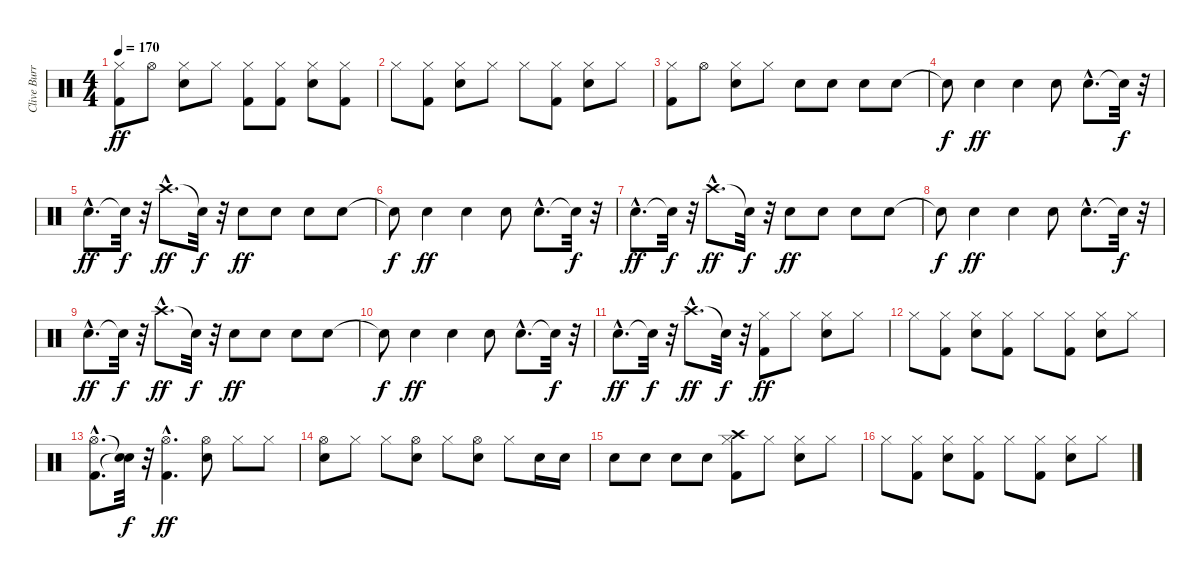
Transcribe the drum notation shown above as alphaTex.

\track ("Clive Burr" "Clive Burr") {instrument percussion}
\staff {score}
\articulation defaults
\ts (4 4)
\tempo 170
\clef neutral
\ks c
("Kick (hit) 2" "Hi-Hat (closed)").8{dy ff} "Hi-Hat (open)".8 ("Snare (hit) 2" "Hi-Hat (closed)").8 "Hi-Hat (closed)".8 ("Kick (hit) 2" "Hi-Hat (closed)").8 ("Kick (hit) 2" "Hi-Hat (closed)").8 ("Snare (hit) 2" "Hi-Hat (closed)").8 ("Kick (hit) 2" "Hi-Hat (closed)").8 |
"Hi-Hat (closed)".8 ("Kick (hit) 2" "Hi-Hat (closed)").8 ("Snare (hit) 2" "Hi-Hat (closed)").8 "Hi-Hat (closed)".8 "Hi-Hat (closed)".8 ("Kick (hit) 2" "Hi-Hat (closed)").8 ("Snare (hit) 2" "Hi-Hat (closed)").8 "Hi-Hat (closed)".8 |
("Kick (hit) 2" "Hi-Hat (closed)").8 "Hi-Hat (open)".8 ("Snare (hit) 2" "Hi-Hat (closed)").8 "Hi-Hat (closed)".8 "Snare (hit) 2".8 "Snare (hit) 2".8 "Snare (hit) 2".8 "Snare (hit) 2".8 |
"Snare (hit)"{t}.8{dy f} "Snare (hit) 2".4{dy ff} "Snare (hit) 2".4 "Snare (hit) 2".8 "Snare (hit) 2"{hac}.8{d} "Snare (hit)"{t}.32{dy f} r.32 |
"Snare (hit) 2"{hac}.8{d dy ff} "Snare (hit)"{t}.32{dy f} r.32 "Crash high (hit)"{hac}.8{d dy ff} "Snare (hit)"{t}.32{dy f} r.32 "Snare (hit) 2".8{dy ff} "Snare (hit) 2".8 "Snare (hit) 2".8 "Snare (hit) 2".8 |
"Snare (hit)"{t}.8{dy f} "Snare (hit) 2".4{dy ff} "Snare (hit) 2".4 "Snare (hit) 2".8 "Snare (hit) 2"{hac}.8{d} "Snare (hit)"{t}.32{dy f} r.32 |
"Snare (hit) 2"{hac}.8{d dy ff} "Snare (hit)"{t}.32{dy f} r.32 "Crash high (hit)"{hac}.8{d dy ff} "Snare (hit)"{t}.32{dy f} r.32 "Snare (hit) 2".8{dy ff} "Snare (hit) 2".8 "Snare (hit) 2".8 "Snare (hit) 2".8 |
"Snare (hit)"{t}.8{dy f} "Snare (hit) 2".4{dy ff} "Snare (hit) 2".4 "Snare (hit) 2".8 "Snare (hit) 2"{hac}.8{d} "Snare (hit)"{t}.32{dy f} r.32 |
"Snare (hit) 2"{hac}.8{d dy ff} "Snare (hit)"{t}.32{dy f} r.32 "Crash high (hit)"{hac}.8{d dy ff} "Snare (hit)"{t}.32{dy f} r.32 "Snare (hit) 2".8{dy ff} "Snare (hit) 2".8 "Snare (hit) 2".8 "Snare (hit) 2".8 |
"Snare (hit)"{t}.8{dy f} "Snare (hit) 2".4{dy ff} "Snare (hit) 2".4 "Snare (hit) 2".8 "Snare (hit) 2"{hac}.8{d} "Snare (hit)"{t}.32{dy f} r.32 |
"Snare (hit) 2"{hac}.8{d dy ff} "Snare (hit)"{t}.32{dy f} r.32 "Crash high (hit)"{hac}.8{d dy ff} "Snare (hit)"{t}.32{dy f} r.32 ("Kick (hit) 2" "Hi-Hat (closed)").8{dy ff} "Hi-Hat (closed)".8 ("Snare (hit) 2" "Hi-Hat (closed)").8 "Hi-Hat (closed)".8 |
"Hi-Hat (closed)".8 ("Kick (hit) 2" "Hi-Hat (closed)").8 ("Snare (hit) 2" "Hi-Hat (closed)").8 ("Kick (hit) 2" "Hi-Hat (closed)").8 "Hi-Hat (closed)".8 ("Kick (hit) 2" "Hi-Hat (closed)").8 ("Snare (hit) 2" "Hi-Hat (closed)").8 "Hi-Hat (closed)".8 |
("Kick (hit) 2"{hac} "Hi-Hat (open)"{hac}).8{d} ("Snare (hit)"{t} "Snare (hit)"{t}).32{dy f} r.32 ("Kick (hit) 2"{hac} "Hi-Hat (open)"{hac}).4{d dy ff} ("Snare (hit) 2" "Hi-Hat (open)").8 "Hi-Hat (closed)".8 "Hi-Hat (closed)".8 |
("Snare (hit) 2" "Hi-Hat (open)").8 "Hi-Hat (closed)".8 "Hi-Hat (closed)".8 ("Snare (hit) 2" "Hi-Hat (open)").8 "Hi-Hat (closed)".8 ("Snare (hit) 2" "Hi-Hat (open)").8 "Hi-Hat (closed)".8 "Snare (hit) 2".16 "Snare (hit) 2".16 |
"Snare (hit) 2".8 "Snare (hit) 2".8 "Snare (hit) 2".8 "Snare (hit) 2".8 ("Kick (hit) 2" "Hi-Hat (closed)" "Crash high (hit)").8 "Hi-Hat (closed)".8 ("Snare (hit) 2" "Hi-Hat (closed)").8 "Hi-Hat (closed)".8 |
"Hi-Hat (closed)".8 ("Kick (hit) 2" "Hi-Hat (closed)").8 ("Snare (hit) 2" "Hi-Hat (closed)").8 ("Kick (hit) 2" "Hi-Hat (closed)").8 "Hi-Hat (closed)".8 ("Kick (hit) 2" "Hi-Hat (closed)").8 ("Snare (hit) 2" "Hi-Hat (closed)").8 "Hi-Hat (closed)".8
